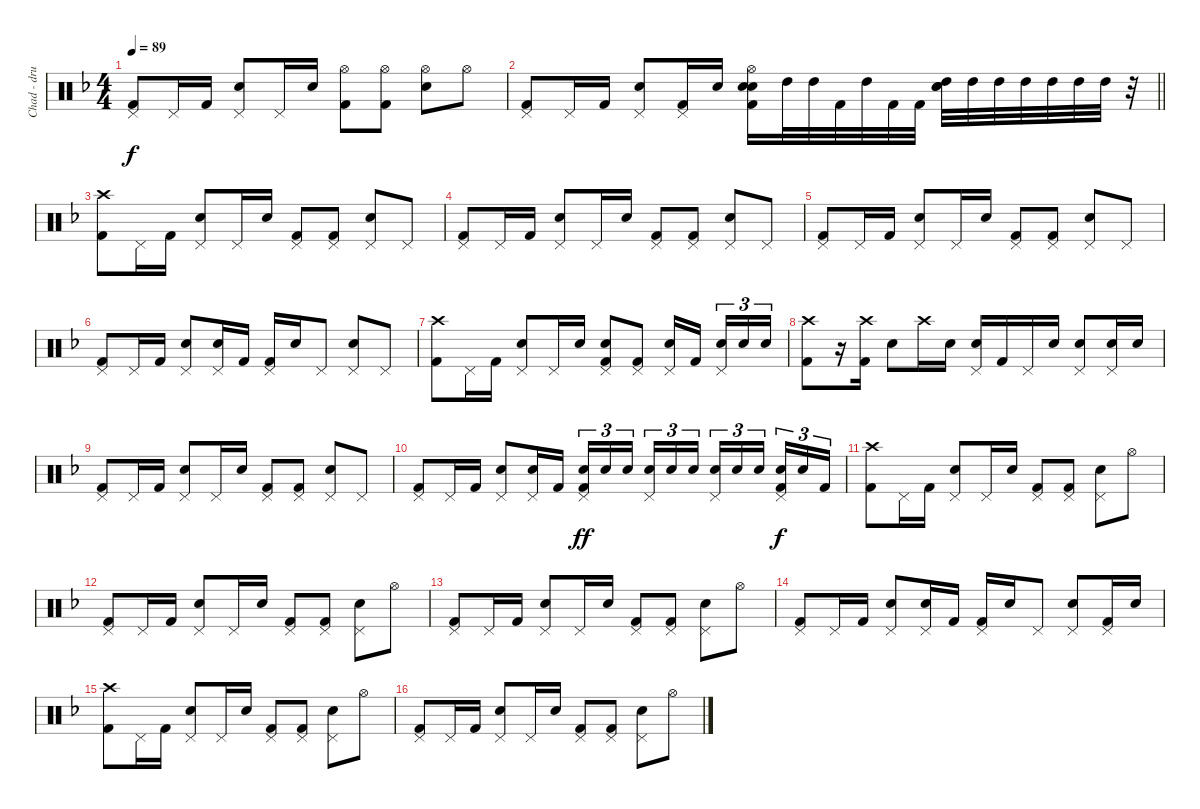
\track ("Chad - drums" "Chad - dru") {instrument percussion}
\staff {score}
\articulation defaults
\ts (4 4)
\tempo 89
\clef neutral
\ks f
("Pedal Hi-Hat (hit)" "Kick (hit) 2").8{dy f} "Pedal Hi-Hat (hit)".16 "Kick (hit) 2".16 ("Pedal Hi-Hat (hit)" "Electric Snare (hit)").8 "Pedal Hi-Hat (hit)".16 "Electric Snare (hit)".16 ("Hi-Hat (open)" "Kick (hit) 2").8 ("Hi-Hat (open)" "Kick (hit) 2").8 ("Hi-Hat (open)" "Electric Snare (hit)").8 "Hi-Hat (open)".8 |
\barLineRight lightlight
("Pedal Hi-Hat (hit)" "Kick (hit) 2").8 "Pedal Hi-Hat (hit)".16 "Kick (hit) 2".16 ("Pedal Hi-Hat (hit)" "Electric Snare (hit)").8 ("Pedal Hi-Hat (hit)" "Kick (hit) 2").16 "Electric Snare (hit)".16 ("Hi-Hat (open)" "Electric Snare (hit)" "Electric Snare (hit)" "Kick (hit) 2").16 "High Tom (hit)".32 "High Tom (hit)".32 "Kick (hit) 2".32 "High Tom (hit)".32 "Kick (hit) 2".32 "Kick (hit) 2".32 ("Electric Snare (hit)" "Electric Snare (hit)" "High Tom (hit)").32 "High Tom (hit)".32 "High Tom (hit)".32 "High Tom (hit)".32 "High Tom (hit)".32 "High Tom (hit)".32 "High Tom (hit)".32 r.32 |
("Crash high (hit)" "Kick (hit) 2").8 "Pedal Hi-Hat (hit)".16 "Kick (hit) 2".16 ("Pedal Hi-Hat (hit)" "Electric Snare (hit)").8 "Pedal Hi-Hat (hit)".16 "Electric Snare (hit)".16 ("Pedal Hi-Hat (hit)" "Kick (hit) 2").8 ("Pedal Hi-Hat (hit)" "Kick (hit) 2").8 ("Pedal Hi-Hat (hit)" "Electric Snare (hit)").8 "Pedal Hi-Hat (hit)".8 |
("Pedal Hi-Hat (hit)" "Kick (hit) 2").8 "Pedal Hi-Hat (hit)".16 "Kick (hit) 2".16 ("Pedal Hi-Hat (hit)" "Electric Snare (hit)").8 "Pedal Hi-Hat (hit)".16 "Electric Snare (hit)".16 ("Pedal Hi-Hat (hit)" "Kick (hit) 2").8 ("Pedal Hi-Hat (hit)" "Kick (hit) 2").8 ("Pedal Hi-Hat (hit)" "Electric Snare (hit)").8 "Pedal Hi-Hat (hit)".8 |
("Pedal Hi-Hat (hit)" "Kick (hit) 2").8 "Pedal Hi-Hat (hit)".16 "Kick (hit) 2".16 ("Pedal Hi-Hat (hit)" "Electric Snare (hit)").8 "Pedal Hi-Hat (hit)".16 "Electric Snare (hit)".16 ("Pedal Hi-Hat (hit)" "Kick (hit) 2").8 ("Pedal Hi-Hat (hit)" "Kick (hit) 2").8 ("Pedal Hi-Hat (hit)" "Electric Snare (hit)").8 "Pedal Hi-Hat (hit)".8 |
("Pedal Hi-Hat (hit)" "Kick (hit) 2").8 "Pedal Hi-Hat (hit)".16 "Kick (hit) 2".16 ("Pedal Hi-Hat (hit)" "Electric Snare (hit)").8 ("Pedal Hi-Hat (hit)" "Electric Snare (hit)").16 "Kick (hit) 2".16 ("Pedal Hi-Hat (hit)" "Kick (hit) 2").16 "Electric Snare (hit)".16 "Pedal Hi-Hat (hit)".8 ("Pedal Hi-Hat (hit)" "Electric Snare (hit)").8 "Pedal Hi-Hat (hit)".8 |
("Crash high (hit)" "Kick (hit) 2").8 "Pedal Hi-Hat (hit)".16 "Kick (hit) 2".16 ("Pedal Hi-Hat (hit)" "Electric Snare (hit)").8 "Pedal Hi-Hat (hit)".16 "Electric Snare (hit)".16 ("Pedal Hi-Hat (hit)" "Electric Snare (hit)" "Kick (hit) 2").8 ("Pedal Hi-Hat (hit)" "Kick (hit) 2").8 ("Pedal Hi-Hat (hit)" "Electric Snare (hit)").16 "Kick (hit) 2".16{beam splitsecondary} ("Pedal Hi-Hat (hit)" "Electric Snare (hit)").16{tu (3 2)} "Electric Snare (hit)".16{tu (3 2)} "Electric Snare (hit)".16{tu (3 2)} |
("Crash high (hit)" "Kick (hit) 2").8 r.16 ("Crash high (hit)" "Kick (hit) 2").16 "Electric Snare (hit)".8 "Crash high (hit)".16 "Electric Snare (hit)".16 ("Pedal Hi-Hat (hit)" "Electric Snare (hit)").16 "Kick (hit) 2".16 "Pedal Hi-Hat (hit)".16 "Electric Snare (hit)".16 ("Pedal Hi-Hat (hit)" "Electric Snare (hit)").8 ("Pedal Hi-Hat (hit)" "Electric Snare (hit)").16 "Electric Snare (hit)".16 |
("Pedal Hi-Hat (hit)" "Kick (hit) 2").8 "Pedal Hi-Hat (hit)".16 "Kick (hit) 2".16 ("Pedal Hi-Hat (hit)" "Electric Snare (hit)").8 "Pedal Hi-Hat (hit)".16 "Electric Snare (hit)".16 ("Pedal Hi-Hat (hit)" "Kick (hit) 2").8 ("Pedal Hi-Hat (hit)" "Kick (hit) 2").8 ("Pedal Hi-Hat (hit)" "Electric Snare (hit)").8 "Pedal Hi-Hat (hit)".8 |
("Pedal Hi-Hat (hit)" "Kick (hit) 2").8 "Pedal Hi-Hat (hit)".16 "Kick (hit) 2".16 ("Pedal Hi-Hat (hit)" "Electric Snare (hit)").8 ("Pedal Hi-Hat (hit)" "Electric Snare (hit)").16 "Kick (hit) 2".16 ("Pedal Hi-Hat (hit)" "Electric Snare (hit)" "Kick (hit) 2").16{tu (3 2) dy ff} "Electric Snare (hit)".16{tu (3 2)} "Electric Snare (hit)".16{tu (3 2) beam splitsecondary} ("Pedal Hi-Hat (hit)" "Electric Snare (hit)").16{tu (3 2)} "Electric Snare (hit)".16{tu (3 2)} "Electric Snare (hit)".16{tu (3 2)} ("Pedal Hi-Hat (hit)" "Electric Snare (hit)").16{tu (3 2)} "Electric Snare (hit)".16{tu (3 2)} "Electric Snare (hit)".16{tu (3 2) beam splitsecondary} ("Pedal Hi-Hat (hit)" "Electric Snare (hit)" "Kick (hit) 2").16{tu (3 2) dy f} "Electric Snare (hit)".16{tu (3 2)} "Kick (hit) 2".16{tu (3 2)} |
("Crash high (hit)" "Kick (hit) 2").8 "Pedal Hi-Hat (hit)".16 "Kick (hit) 2".16 ("Pedal Hi-Hat (hit)" "Electric Snare (hit)").8 "Pedal Hi-Hat (hit)".16 "Electric Snare (hit)".16 ("Pedal Hi-Hat (hit)" "Kick (hit) 2").8 ("Pedal Hi-Hat (hit)" "Kick (hit) 2").8 ("Pedal Hi-Hat (hit)" "Electric Snare (hit)").8 "Hi-Hat (open)".8 |
("Pedal Hi-Hat (hit)" "Kick (hit) 2").8 "Pedal Hi-Hat (hit)".16 "Kick (hit) 2".16 ("Pedal Hi-Hat (hit)" "Electric Snare (hit)").8 "Pedal Hi-Hat (hit)".16 "Electric Snare (hit)".16 ("Pedal Hi-Hat (hit)" "Kick (hit) 2").8 ("Pedal Hi-Hat (hit)" "Kick (hit) 2").8 ("Pedal Hi-Hat (hit)" "Electric Snare (hit)").8 "Hi-Hat (open)".8 |
("Pedal Hi-Hat (hit)" "Kick (hit) 2").8 "Pedal Hi-Hat (hit)".16 "Kick (hit) 2".16 ("Pedal Hi-Hat (hit)" "Electric Snare (hit)").8 "Pedal Hi-Hat (hit)".16 "Electric Snare (hit)".16 ("Pedal Hi-Hat (hit)" "Kick (hit) 2").8 ("Pedal Hi-Hat (hit)" "Kick (hit) 2").8 ("Pedal Hi-Hat (hit)" "Electric Snare (hit)").8 "Hi-Hat (open)".8 |
("Pedal Hi-Hat (hit)" "Kick (hit) 2").8 "Pedal Hi-Hat (hit)".16 "Kick (hit) 2".16 ("Pedal Hi-Hat (hit)" "Electric Snare (hit)").8 ("Pedal Hi-Hat (hit)" "Electric Snare (hit)").16 "Kick (hit) 2".16 ("Pedal Hi-Hat (hit)" "Kick (hit) 2").16 "Electric Snare (hit)".16 "Pedal Hi-Hat (hit)".8 ("Pedal Hi-Hat (hit)" "Electric Snare (hit)").8 ("Pedal Hi-Hat (hit)" "Kick (hit) 2").16 "Electric Snare (hit)".16 |
("Crash high (hit)" "Kick (hit) 2").8 "Pedal Hi-Hat (hit)".16 "Kick (hit) 2".16 ("Pedal Hi-Hat (hit)" "Electric Snare (hit)").8 "Pedal Hi-Hat (hit)".16 "Electric Snare (hit)".16 ("Pedal Hi-Hat (hit)" "Kick (hit) 2").8 ("Pedal Hi-Hat (hit)" "Kick (hit) 2").8 ("Pedal Hi-Hat (hit)" "Electric Snare (hit)").8 "Hi-Hat (open)".8 |
("Pedal Hi-Hat (hit)" "Kick (hit) 2").8 "Pedal Hi-Hat (hit)".16 "Kick (hit) 2".16 ("Pedal Hi-Hat (hit)" "Electric Snare (hit)").8 "Pedal Hi-Hat (hit)".16 "Electric Snare (hit)".16 ("Pedal Hi-Hat (hit)" "Kick (hit) 2").8 ("Pedal Hi-Hat (hit)" "Kick (hit) 2").8 ("Pedal Hi-Hat (hit)" "Electric Snare (hit)").8 "Hi-Hat (open)".8
